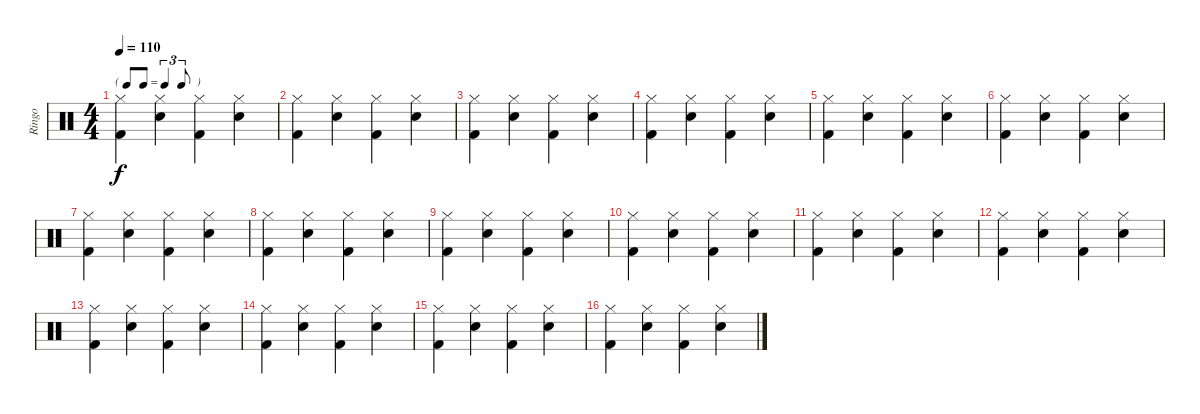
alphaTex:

\track ("Ringo" "Ringo") {instrument percussion}
\staff {score}
\articulation defaults
\ts (4 4)
\tf triplet8th
\tempo 110
\clef neutral
\ks c
("Hi-Hat (closed)" "Kick (hit) 2").4{dy f} ("Hi-Hat (closed)" "Snare (hit) 2").4 ("Hi-Hat (closed)" "Kick (hit) 2").4 ("Hi-Hat (closed)" "Snare (hit) 2").4 |
("Hi-Hat (closed)" "Kick (hit) 2").4 ("Hi-Hat (closed)" "Snare (hit) 2").4 ("Hi-Hat (closed)" "Kick (hit) 2").4 ("Hi-Hat (closed)" "Snare (hit) 2").4 |
("Hi-Hat (closed)" "Kick (hit) 2").4 ("Hi-Hat (closed)" "Snare (hit) 2").4 ("Hi-Hat (closed)" "Kick (hit) 2").4 ("Hi-Hat (closed)" "Snare (hit) 2").4 |
("Hi-Hat (closed)" "Kick (hit) 2").4 ("Hi-Hat (closed)" "Snare (hit) 2").4 ("Hi-Hat (closed)" "Kick (hit) 2").4 ("Hi-Hat (closed)" "Snare (hit) 2").4 |
("Hi-Hat (closed)" "Kick (hit) 2").4 ("Hi-Hat (closed)" "Snare (hit) 2").4 ("Hi-Hat (closed)" "Kick (hit) 2").4 ("Hi-Hat (closed)" "Snare (hit) 2").4 |
("Hi-Hat (closed)" "Kick (hit) 2").4 ("Hi-Hat (closed)" "Snare (hit) 2").4 ("Hi-Hat (closed)" "Kick (hit) 2").4 ("Hi-Hat (closed)" "Snare (hit) 2").4 |
("Hi-Hat (closed)" "Kick (hit) 2").4 ("Hi-Hat (closed)" "Snare (hit) 2").4 ("Hi-Hat (closed)" "Kick (hit) 2").4 ("Hi-Hat (closed)" "Snare (hit) 2").4 |
("Hi-Hat (closed)" "Kick (hit) 2").4 ("Hi-Hat (closed)" "Snare (hit) 2").4 ("Hi-Hat (closed)" "Kick (hit) 2").4 ("Hi-Hat (closed)" "Snare (hit) 2").4 |
("Hi-Hat (closed)" "Kick (hit) 2").4 ("Hi-Hat (closed)" "Snare (hit) 2").4 ("Hi-Hat (closed)" "Kick (hit) 2").4 ("Hi-Hat (closed)" "Snare (hit) 2").4 |
("Hi-Hat (closed)" "Kick (hit) 2").4 ("Hi-Hat (closed)" "Snare (hit) 2").4 ("Hi-Hat (closed)" "Kick (hit) 2").4 ("Hi-Hat (closed)" "Snare (hit) 2").4 |
("Hi-Hat (closed)" "Kick (hit) 2").4{volume 8} ("Hi-Hat (closed)" "Snare (hit) 2").4 ("Hi-Hat (closed)" "Kick (hit) 2").4 ("Hi-Hat (closed)" "Snare (hit) 2").4 |
("Hi-Hat (closed)" "Kick (hit) 2").4 ("Hi-Hat (closed)" "Snare (hit) 2").4 ("Hi-Hat (closed)" "Kick (hit) 2").4 ("Hi-Hat (closed)" "Snare (hit) 2").4 |
("Hi-Hat (closed)" "Kick (hit) 2").4{volume 6} ("Hi-Hat (closed)" "Snare (hit) 2").4 ("Hi-Hat (closed)" "Kick (hit) 2").4 ("Hi-Hat (closed)" "Snare (hit) 2").4 |
("Hi-Hat (closed)" "Kick (hit) 2").4{volume 5} ("Hi-Hat (closed)" "Snare (hit) 2").4 ("Hi-Hat (closed)" "Kick (hit) 2").4 ("Hi-Hat (closed)" "Snare (hit) 2").4 |
("Hi-Hat (closed)" "Kick (hit) 2").4{volume 4} ("Hi-Hat (closed)" "Snare (hit) 2").4 ("Hi-Hat (closed)" "Kick (hit) 2").4 ("Hi-Hat (closed)" "Snare (hit) 2").4 |
("Hi-Hat (closed)" "Kick (hit) 2").4{volume 2} ("Hi-Hat (closed)" "Snare (hit) 2").4 ("Hi-Hat (closed)" "Kick (hit) 2").4 ("Hi-Hat (closed)" "Snare (hit) 2").4
